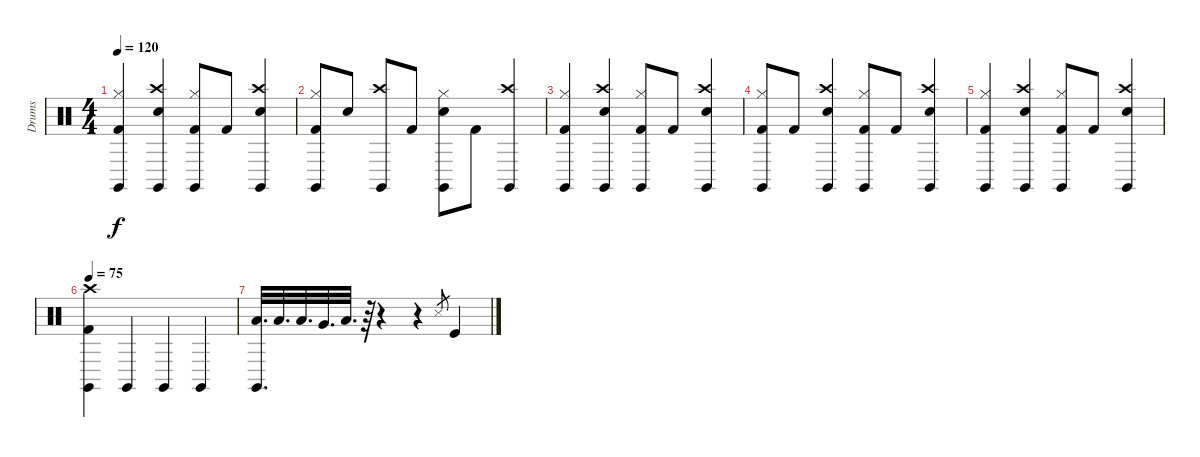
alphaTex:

\track ("Drums" "Drums") {instrument percussion}
\staff {score}
\articulation defaults
\ts (4 4)
\tempo 120
\clef neutral
\ks c
("Hi-Hat (closed)" "Kick (hit) 2" "Claves (hit)").4{dy f} ("Crash high (hit)" "Snare (hit) 2" "Claves (hit)").4 ("Hi-Hat (closed)" "Kick (hit) 2" "Claves (hit)").8 "Kick (hit) 2".8 ("Crash high (hit)" "Snare (hit) 2" "Claves (hit)").4 |
("Hi-Hat (closed)" "Kick (hit) 2" "Claves (hit)").8 "Snare (hit) 2".8 ("Crash high (hit)" "Claves (hit)").8 "Kick (hit) 2".8 ("Hi-Hat (closed)" "Snare (hit) 2" "Claves (hit)").8 "Kick (hit) 2".8 ("Crash high (hit)" "Claves (hit)").4 |
("Hi-Hat (closed)" "Kick (hit) 2" "Claves (hit)").4 ("Crash high (hit)" "Snare (hit) 2" "Claves (hit)").4 ("Hi-Hat (closed)" "Kick (hit) 2" "Claves (hit)").8 "Kick (hit) 2".8 ("Crash high (hit)" "Snare (hit) 2" "Claves (hit)").4 |
("Hi-Hat (closed)" "Kick (hit) 2" "Claves (hit)").8 "Kick (hit) 2".8 ("Crash high (hit)" "Snare (hit) 2" "Claves (hit)").4 ("Hi-Hat (closed)" "Kick (hit) 2" "Claves (hit)").8 "Kick (hit) 2".8 ("Crash high (hit)" "Snare (hit) 2" "Claves (hit)").4 |
("Hi-Hat (closed)" "Kick (hit) 2" "Claves (hit)").4 ("Crash high (hit)" "Snare (hit) 2" "Claves (hit)").4 ("Hi-Hat (closed)" "Kick (hit) 2" "Claves (hit)").8 "Kick (hit) 2".8 ("Crash high (hit)" "Snare (hit) 2" "Claves (hit)").4 |
\tempo 75
("Crash high (hit)" "Kick (hit) 2" "Claves (hit)").4 "Claves (hit)".4 "Claves (hit)".4 "Claves (hit)".4 |
("Low Tom (hit)" "Claves (hit)").32{d} "Low Tom (hit)".32{d} "Low Tom (hit)".32{d} "Very Low Tom (hit)".32{d} "Low Floor Tom (hit)".32{d} r.64 r.4 r.4 "Metronome (hit)".8{gr} "Kick (hit)".4
